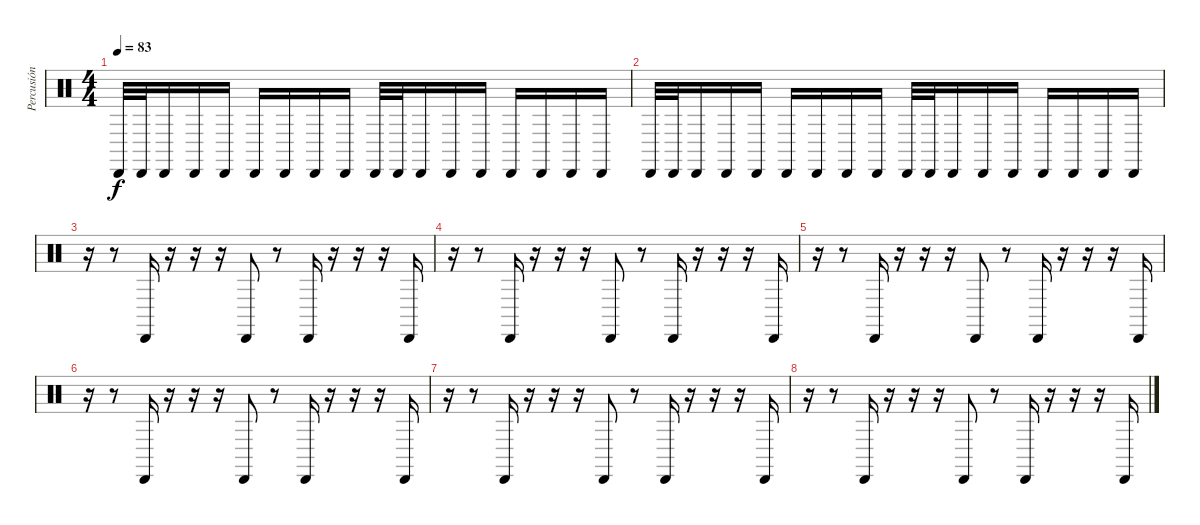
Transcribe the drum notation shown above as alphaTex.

\track ("Percusión" "Percusión") {instrument percussion}
\staff {score}
\articulation defaults
\ts (4 4)
\tempo 83
\clef neutral
\ks c "Cabasa (hit)".32{dy f} "Cabasa (hit)".32 "Cabasa (hit)".16 "Cabasa (hit)".16 "Cabasa (hit)".16 "Cabasa (hit)".16 "Cabasa (hit)".16 "Cabasa (hit)".16 "Cabasa (hit)".16 "Cabasa (hit)".32 "Cabasa (hit)".32 "Cabasa (hit)".16 "Cabasa (hit)".16 "Cabasa (hit)".16 "Cabasa (hit)".16 "Cabasa (hit)".16 "Cabasa (hit)".16 "Cabasa (hit)".16
|
"Cabasa (hit)".32 "Cabasa (hit)".32 "Cabasa (hit)".16 "Cabasa (hit)".16 "Cabasa (hit)".16 "Cabasa (hit)".16 "Cabasa (hit)".16 "Cabasa (hit)".16 "Cabasa (hit)".16 "Cabasa (hit)".32 "Cabasa (hit)".32 "Cabasa (hit)".16 "Cabasa (hit)".16 "Cabasa (hit)".16 "Cabasa (hit)".16 "Cabasa (hit)".16 "Cabasa (hit)".16 "Cabasa (hit)".16 |
r.16 r.8 "Cabasa (hit)".16 r.16 r.16 r.16 "Cabasa (hit)".8 r.8 "Cabasa (hit)".16 r.16 r.16 r.16 "Cabasa (hit)".16 |
r.16 r.8 "Cabasa (hit)".16 r.16 r.16 r.16 "Cabasa (hit)".8 r.8 "Cabasa (hit)".16 r.16 r.16 r.16 "Cabasa (hit)".16 |
r.16{volume 10} r.8 "Cabasa (hit)".16 r.16 r.16 r.16 "Cabasa (hit)".8 r.8 "Cabasa (hit)".16 r.16 r.16 r.16 "Cabasa (hit)".16 |
r.16{volume 6} r.8 "Cabasa (hit)".16 r.16 r.16 r.16 "Cabasa (hit)".8 r.8 "Cabasa (hit)".16 r.16 r.16 r.16 "Cabasa (hit)".16 |
r.16{volume 2} r.8 "Cabasa (hit)".16 r.16 r.16 r.16 "Cabasa (hit)".8 r.8 "Cabasa (hit)".16 r.16 r.16 r.16 "Cabasa (hit)".16 |
r.16{volume 0} r.8 "Cabasa (hit)".16 r.16 r.16 r.16 "Cabasa (hit)".8 r.8 "Cabasa (hit)".16 r.16 r.16 r.16 "Cabasa (hit)".16
